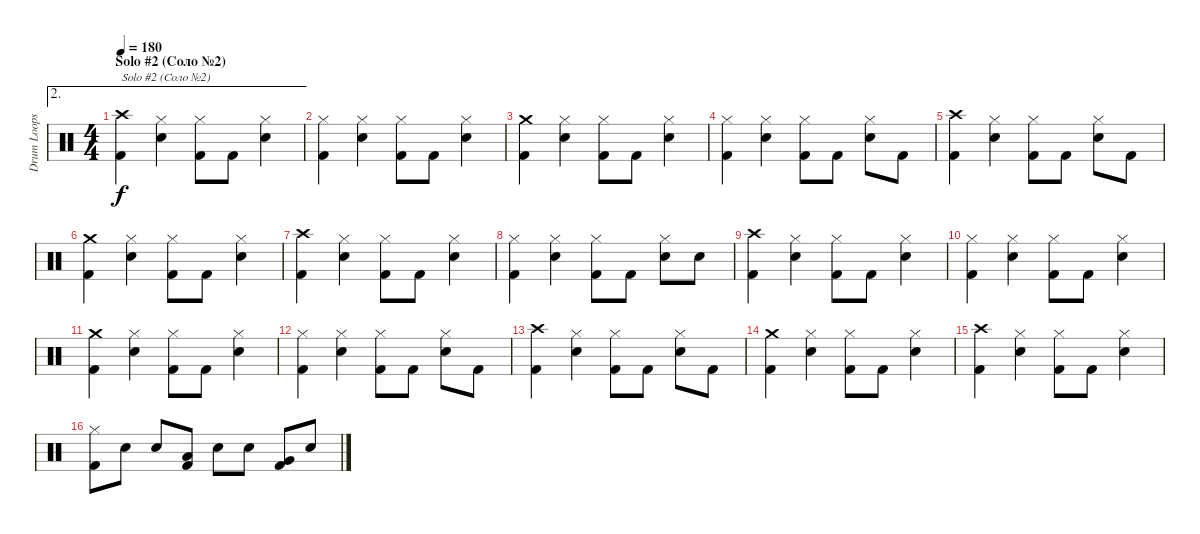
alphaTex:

\track ("Drum Loops (Дурачок)" "Drum Loops") {instrument percussion}
\staff {score}
\articulation defaults
\ae 2
\ts (4 4)
\section ("" "Solo #2 (Соло №2)")
\tempo 180
\clef neutral
\ks c
("Kick (hit) 2" "Crash high (hit)").4{txt "Solo #2 (Соло №2)" dy f} ("Snare (hit) 2" "Hi-Hat (closed)").4 ("Kick (hit) 2" "Hi-Hat (closed)").8 "Kick (hit) 2".8 ("Snare (hit) 2" "Hi-Hat (closed)").4 |
("Kick (hit) 2" "Hi-Hat (closed)").4 ("Snare (hit) 2" "Hi-Hat (closed)").4 ("Kick (hit) 2" "Hi-Hat (closed)").8 "Kick (hit) 2".8 ("Snare (hit) 2" "Hi-Hat (closed)").4 |
("Kick (hit) 2" "Crash medium (hit)").4 ("Snare (hit) 2" "Hi-Hat (closed)").4 ("Kick (hit) 2" "Hi-Hat (closed)").8 "Kick (hit) 2".8 ("Snare (hit) 2" "Hi-Hat (closed)").4 |
("Kick (hit) 2" "Hi-Hat (closed)").4 ("Snare (hit) 2" "Hi-Hat (closed)").4 ("Kick (hit) 2" "Hi-Hat (closed)").8 "Kick (hit) 2".8 ("Snare (hit) 2" "Hi-Hat (closed)").8 "Kick (hit) 2".8 |
("Kick (hit) 2" "Crash high (hit)").4 ("Snare (hit) 2" "Hi-Hat (closed)").4 ("Kick (hit) 2" "Hi-Hat (closed)").8 "Kick (hit) 2".8 ("Snare (hit) 2" "Hi-Hat (closed)").8 "Kick (hit) 2".8 |
("Kick (hit) 2" "Crash medium (hit)").4 ("Snare (hit) 2" "Hi-Hat (closed)").4 ("Kick (hit) 2" "Hi-Hat (closed)").8 "Kick (hit) 2".8 ("Snare (hit) 2" "Hi-Hat (closed)").4 |
("Kick (hit) 2" "Crash high (hit)").4 ("Snare (hit) 2" "Hi-Hat (closed)").4 ("Kick (hit) 2" "Hi-Hat (closed)").8 "Kick (hit) 2".8 ("Snare (hit) 2" "Hi-Hat (closed)").4 |
("Kick (hit) 2" "Hi-Hat (closed)").4 ("Snare (hit) 2" "Hi-Hat (closed)").4 ("Kick (hit) 2" "Hi-Hat (closed)").8 "Kick (hit) 2".8 ("Snare (hit) 2" "Hi-Hat (closed)").8 "Snare (hit) 2".8 |
("Kick (hit) 2" "Crash high (hit)").4 ("Snare (hit) 2" "Hi-Hat (closed)").4 ("Kick (hit) 2" "Hi-Hat (closed)").8 "Kick (hit) 2".8 ("Snare (hit) 2" "Hi-Hat (closed)").4 |
("Kick (hit) 2" "Hi-Hat (closed)").4 ("Snare (hit) 2" "Hi-Hat (closed)").4 ("Kick (hit) 2" "Hi-Hat (closed)").8 "Kick (hit) 2".8 ("Snare (hit) 2" "Hi-Hat (closed)").4 |
("Kick (hit) 2" "Crash medium (hit)").4 ("Snare (hit) 2" "Hi-Hat (closed)").4 ("Kick (hit) 2" "Hi-Hat (closed)").8 "Kick (hit) 2".8 ("Snare (hit) 2" "Hi-Hat (closed)").4 |
("Kick (hit) 2" "Hi-Hat (closed)").4 ("Snare (hit) 2" "Hi-Hat (closed)").4 ("Kick (hit) 2" "Hi-Hat (closed)").8 "Kick (hit) 2".8 ("Snare (hit) 2" "Hi-Hat (closed)").8 "Kick (hit) 2".8 |
("Kick (hit) 2" "Crash high (hit)").4 ("Snare (hit) 2" "Hi-Hat (closed)").4 ("Kick (hit) 2" "Hi-Hat (closed)").8 "Kick (hit) 2".8 ("Snare (hit) 2" "Hi-Hat (closed)").8 "Kick (hit) 2".8 |
("Kick (hit) 2" "Crash medium (hit)").4 ("Snare (hit) 2" "Hi-Hat (closed)").4 ("Kick (hit) 2" "Hi-Hat (closed)").8 "Kick (hit) 2".8 ("Snare (hit) 2" "Hi-Hat (closed)").4 |
("Kick (hit) 2" "Crash high (hit)").4 ("Snare (hit) 2" "Hi-Hat (closed)").4 ("Kick (hit) 2" "Hi-Hat (closed)").8 "Kick (hit) 2".8 ("Snare (hit) 2" "Hi-Hat (closed)").4 |
("Kick (hit) 2" "Hi-Hat (closed)").8 "Snare (hit) 2".8 "Snare (hit) 2".8 ("Kick (hit) 2" "Low Tom (hit)").8 "Snare (hit) 2".8 "Snare (hit) 2".8 ("Kick (hit) 2" "Very Low Tom (hit)").8 "Snare (hit) 2".8
